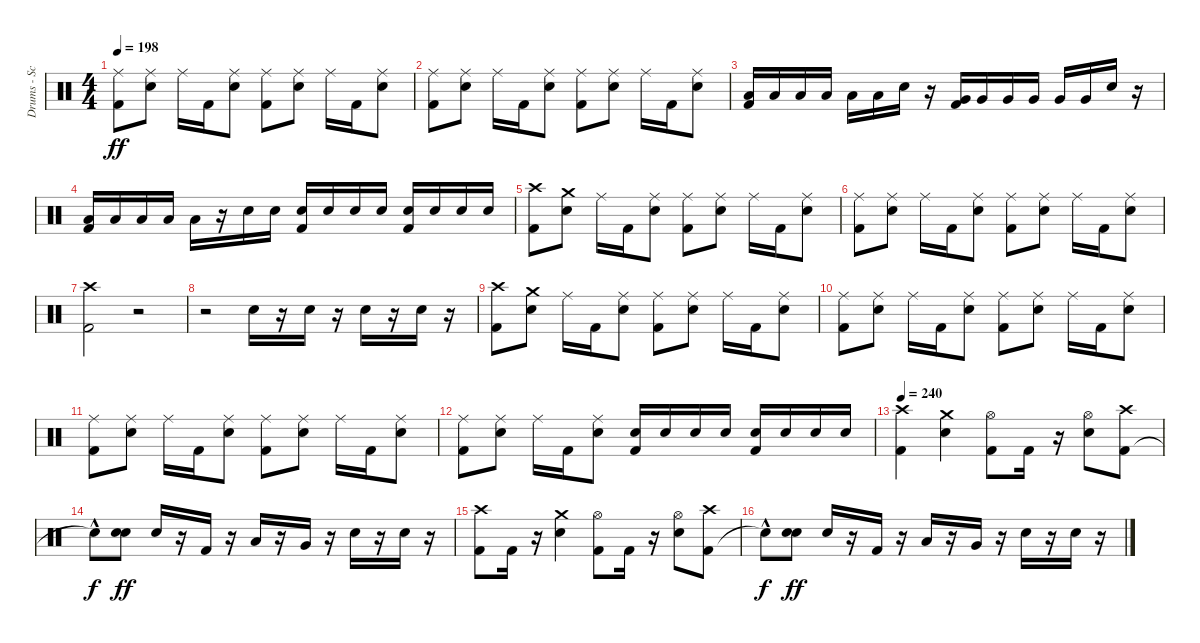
\track ("Drums - Scott" "Drums - Sc") {instrument percussion}
\staff {score}
\articulation defaults
\ts (4 4)
\tempo 198
\clef neutral
\ks c
("Kick (hit) 2" "Ride (middle)").8{dy ff} ("Electric Snare (hit)" "Ride (middle)").8 "Ride (middle)".16 "Kick (hit) 2".16 ("Electric Snare (hit)" "Ride (middle)").8 ("Kick (hit) 2" "Ride (middle)").8 ("Electric Snare (hit)" "Ride (middle)").8 "Ride (middle)".16 "Kick (hit) 2".16 ("Electric Snare (hit)" "Ride (middle)").8 |
("Kick (hit) 2" "Ride (middle)").8 ("Electric Snare (hit)" "Ride (middle)").8 "Ride (middle)".16 "Kick (hit) 2".16 ("Electric Snare (hit)" "Ride (middle)").8 ("Kick (hit) 2" "Ride (middle)").8 ("Electric Snare (hit)" "Ride (middle)").8 "Ride (middle)".16 "Kick (hit) 2".16 ("Electric Snare (hit)" "Ride (middle)").8 |
("Kick (hit) 2" "Low Tom (hit)").16 "Low Tom (hit)".16 "Low Tom (hit)".16 "Low Tom (hit)".16 "Low Tom (hit)".16 "Low Tom (hit)".16 "Electric Snare (hit)".16 r.16 ("Kick (hit) 2" "Very Low Tom (hit)").16 "Very Low Tom (hit)".16 "Very Low Tom (hit)".16 "Very Low Tom (hit)".16 "Very Low Tom (hit)".16 "Very Low Tom (hit)".16 "Electric Snare (hit)".16 r.16 |
("Kick (hit) 2" "Low Floor Tom (hit)").16 "Low Floor Tom (hit)".16 "Low Floor Tom (hit)".16 "Low Floor Tom (hit)".16 "Low Tom (hit)".16 r.16 "Electric Snare (hit)".16 "Electric Snare (hit)".16 ("Kick (hit) 2" "Electric Snare (hit)").16 "Electric Snare (hit)".16 "Electric Snare (hit)".16 "Electric Snare (hit)".16 ("Kick (hit) 2" "Electric Snare (hit)").16 "Electric Snare (hit)".16 "Electric Snare (hit)".16 "Electric Snare (hit)".16 |
("Kick (hit) 2" "Crash high (hit)").8 ("Electric Snare (hit)" "Crash medium (hit)").8 "Ride (middle)".16 "Kick (hit) 2".16 ("Electric Snare (hit)" "Ride (middle)").8 ("Kick (hit) 2" "Ride (middle)").8 ("Electric Snare (hit)" "Ride (middle)").8 "Ride (middle)".16 "Kick (hit) 2".16 ("Electric Snare (hit)" "Ride (middle)").8 |
("Kick (hit) 2" "Ride (middle)").8 ("Electric Snare (hit)" "Ride (middle)").8 "Ride (middle)".16 "Kick (hit) 2".16 ("Electric Snare (hit)" "Ride (middle)").8 ("Kick (hit) 2" "Ride (middle)").8 ("Electric Snare (hit)" "Ride (middle)").8 "Ride (middle)".16 "Kick (hit) 2".16 ("Electric Snare (hit)" "Ride (middle)").8 |
("Kick (hit) 2" "Crash high (hit)").2 r.2 |
r.2 "Electric Snare (hit)".16 r.16 "Electric Snare (hit)".16 r.16 "Electric Snare (hit)".16 r.16 "Electric Snare (hit)".16 r.16 |
("Kick (hit) 2" "Crash high (hit)").8 ("Electric Snare (hit)" "Crash medium (hit)").8 "Ride (middle)".16 "Kick (hit) 2".16 ("Electric Snare (hit)" "Ride (middle)").8 ("Kick (hit) 2" "Ride (middle)").8 ("Electric Snare (hit)" "Ride (middle)").8 "Ride (middle)".16 "Kick (hit) 2".16 ("Electric Snare (hit)" "Ride (middle)").8 |
("Kick (hit) 2" "Ride (middle)").8 ("Electric Snare (hit)" "Ride (middle)").8 "Ride (middle)".16 "Kick (hit) 2".16 ("Electric Snare (hit)" "Ride (middle)").8 ("Kick (hit) 2" "Ride (middle)").8 ("Electric Snare (hit)" "Ride (middle)").8 "Ride (middle)".16 "Kick (hit) 2".16 ("Electric Snare (hit)" "Ride (middle)").8 |
("Kick (hit) 2" "Ride (middle)").8 ("Electric Snare (hit)" "Ride (middle)").8 "Ride (middle)".16 "Kick (hit) 2".16 ("Electric Snare (hit)" "Ride (middle)").8 ("Kick (hit) 2" "Ride (middle)").8 ("Electric Snare (hit)" "Ride (middle)").8 "Ride (middle)".16 "Kick (hit) 2".16 ("Electric Snare (hit)" "Ride (middle)").8 |
("Kick (hit) 2" "Ride (middle)").8 ("Electric Snare (hit)" "Ride (middle)").8 "Ride (middle)".16 "Kick (hit) 2".16 ("Electric Snare (hit)" "Ride (middle)").8 ("Kick (hit) 2" "Electric Snare (hit)").16 "Electric Snare (hit)".16 "Electric Snare (hit)".16 "Electric Snare (hit)".16 ("Kick (hit) 2" "Electric Snare (hit)").16 "Electric Snare (hit)".16 "Electric Snare (hit)".16 "Electric Snare (hit)".16 |
\tempo 240
("Kick (hit) 2" "Crash high (hit)").4 ("Electric Snare (hit)" "Crash medium (hit)").4 ("Kick (hit) 2" "Hi-Hat (open)").8 "Kick (hit) 2".16 r.16 ("Electric Snare (hit)" "Hi-Hat (open)").8 ("Kick (hit) 2" "Crash high (hit)").8 |
"Snare (hit)"{hac t}.8{dy f} ("Electric Snare (hit)" "Electric Snare (hit)").8{dy ff} "Electric Snare (hit)".16 r.16 "Kick (hit) 2".16 r.16 "Low Tom (hit)".16 r.16 "Very Low Tom (hit)".16 r.16 "Electric Snare (hit)".16 r.16 "Electric Snare (hit)".16 r.16 |
("Kick (hit) 2" "Crash high (hit)").8 "Kick (hit) 2".16 r.16 ("Electric Snare (hit)" "Crash medium (hit)").4 ("Kick (hit) 2" "Hi-Hat (open)").8 "Kick (hit) 2".16 r.16 ("Electric Snare (hit)" "Hi-Hat (open)").8 ("Kick (hit) 2" "Crash high (hit)").8 |
"Snare (hit)"{hac t}.8{dy f} ("Electric Snare (hit)" "Electric Snare (hit)").8{dy ff} "Electric Snare (hit)".16 r.16 "Kick (hit) 2".16 r.16 "Low Tom (hit)".16 r.16 "Very Low Tom (hit)".16 r.16 "Electric Snare (hit)".16 r.16 "Electric Snare (hit)".16 r.16
